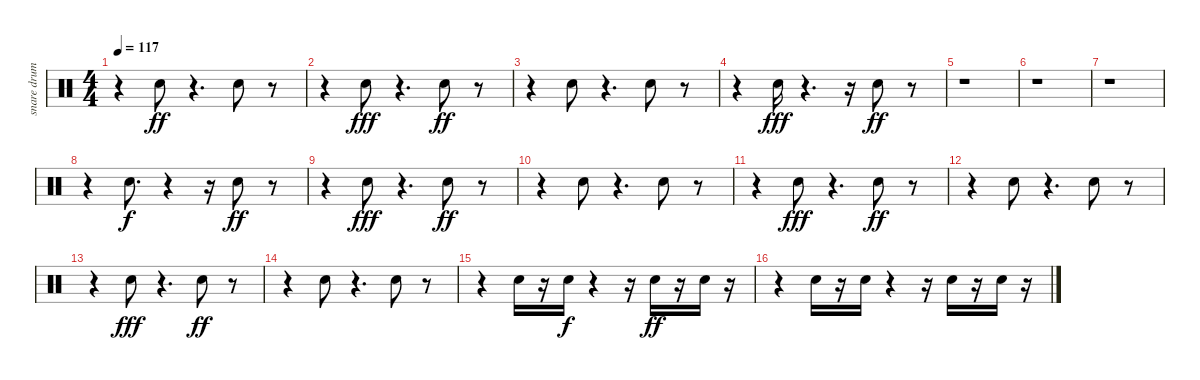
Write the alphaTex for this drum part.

\track ("snare drum" "snare drum") {instrument percussion}
\staff {score}
\articulation defaults
\ts (4 4)
\tempo 117
\clef neutral
\ks c
r.4{dy ff} "Snare (hit) 2".8 r.4{d} "Snare (hit) 2".8 r.8 |
r.4 "Snare (hit) 2".8{dy fff} r.4{d} "Snare (hit) 2".8{dy ff} r.8 |
r.4 "Snare (hit) 2".8 r.4{d} "Snare (hit) 2".8 r.8 |
r.4 "Snare (hit) 2".16{dy fff} r.4{d} r.16 "Snare (hit) 2".8{dy ff} r.8 |
r.1 |
r.1 |
r.1 |
r.4 "Snare (hit) 2".8{d dy f} r.4 r.16 "Snare (hit) 2".8{dy ff} r.8 |
r.4 "Snare (hit) 2".8{dy fff} r.4{d} "Snare (hit) 2".8{dy ff} r.8 |
r.4 "Snare (hit) 2".8 r.4{d} "Snare (hit) 2".8 r.8 |
r.4 "Snare (hit) 2".8{dy fff} r.4{d} "Snare (hit) 2".8{dy ff} r.8 |
r.4 "Snare (hit) 2".8 r.4{d} "Snare (hit) 2".8 r.8 |
r.4 "Snare (hit) 2".8{dy fff} r.4{d} "Snare (hit) 2".8{dy ff} r.8 |
r.4 "Snare (hit) 2".8 r.4{d} "Snare (hit) 2".8 r.8 |
r.4 "Snare (hit) 2".16 r.16 "Snare (hit) 2".16{dy f} r.4 r.16 "Snare (hit) 2".16{dy ff} r.16 "Snare (hit) 2".16 r.16 |
r.4 "Snare (hit) 2".16 r.16 "Snare (hit) 2".16 r.4 r.16 "Snare (hit) 2".16 r.16 "Snare (hit) 2".16 r.16
